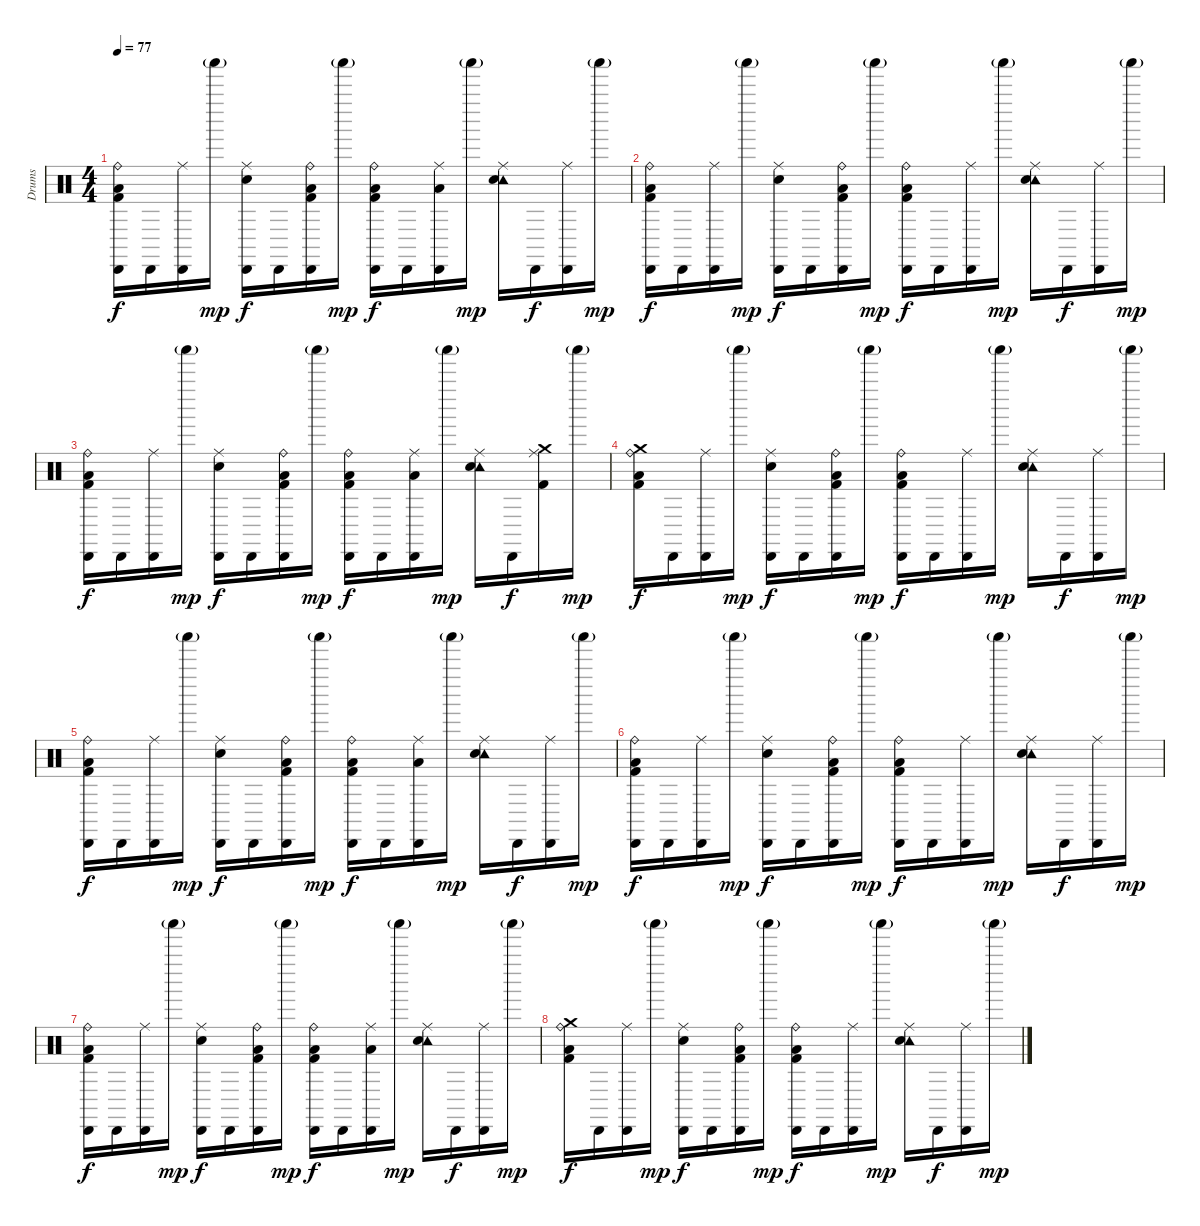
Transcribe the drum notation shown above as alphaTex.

\track ("Drums" "Drums") {instrument percussion}
\staff {score}
\articulation defaults
\ts (4 4)
\tempo 77
\clef neutral
\ks c
("Cabasa (hit)" "Ride (bell)" "Low Floor Tom (hit)" "Kick (hit) 2").16{dy f} "Cabasa (hit)".16 ("Cabasa (hit)" "Ride (middle)").16 "Shaker (hit)"{g}.16{dy mp} ("Cabasa (hit)" "Ride (middle)" "Snare (hit) 2").16{dy f} "Cabasa (hit)".16 ("Cabasa (hit)" "Ride (bell)" "Low Floor Tom (hit)" "Kick (hit) 2").16 "Shaker (hit)"{g}.16{dy mp} ("Cabasa (hit)" "Ride (bell)" "Low Floor Tom (hit)" "Kick (hit) 2").16{dy f} "Cabasa (hit)".16 ("Cabasa (hit)" "Ride (middle)" "Low Floor Tom (hit)").16 "Shaker (hit)"{g}.16{dy mp} ("Tambourine (hit)" "Ride (middle)" "Snare (hit) 2").16 "Cabasa (hit)".16{dy f} ("Cabasa (hit)" "Ride (middle)").16 "Shaker (hit)"{g}.16{dy mp} |
("Cabasa (hit)" "Ride (bell)" "Low Floor Tom (hit)" "Kick (hit) 2").16{dy f} "Cabasa (hit)".16 ("Cabasa (hit)" "Ride (middle)").16 "Shaker (hit)"{g}.16{dy mp} ("Cabasa (hit)" "Ride (middle)" "Snare (hit) 2").16{dy f} "Cabasa (hit)".16 ("Cabasa (hit)" "Ride (bell)" "Low Floor Tom (hit)" "Kick (hit) 2").16 "Shaker (hit)"{g}.16{dy mp} ("Cabasa (hit)" "Ride (bell)" "Low Floor Tom (hit)" "Kick (hit) 2").16{dy f} "Cabasa (hit)".16 ("Cabasa (hit)" "Ride (middle)").16 "Shaker (hit)"{g}.16{dy mp} ("Tambourine (hit)" "Ride (middle)" "Snare (hit) 2").16 "Cabasa (hit)".16{dy f} ("Cabasa (hit)" "Ride (middle)").16 "Shaker (hit)"{g}.16{dy mp} |
("Cabasa (hit)" "Ride (bell)" "Low Floor Tom (hit)" "Kick (hit) 2").16{dy f} "Cabasa (hit)".16 ("Cabasa (hit)" "Ride (middle)").16 "Shaker (hit)"{g}.16{dy mp} ("Cabasa (hit)" "Ride (middle)" "Snare (hit) 2").16{dy f} "Cabasa (hit)".16 ("Cabasa (hit)" "Ride (bell)" "Low Floor Tom (hit)" "Kick (hit) 2").16 "Shaker (hit)"{g}.16{dy mp} ("Cabasa (hit)" "Ride (bell)" "Low Floor Tom (hit)" "Kick (hit) 2").16{dy f} "Cabasa (hit)".16 ("Cabasa (hit)" "Ride (middle)" "Low Floor Tom (hit)").16 "Shaker (hit)"{g}.16{dy mp} ("Tambourine (hit)" "Ride (middle)" "Snare (hit) 2").16 "Cabasa (hit)".16{dy f} ("Crash medium (hit)" "Ride (middle)" "Kick (hit) 2").16 "Shaker (hit)"{g}.16{dy mp} |
("Crash medium (hit)" "Ride (bell)" "Low Floor Tom (hit)" "Kick (hit) 2").16{dy f} "Cabasa (hit)".16 ("Cabasa (hit)" "Ride (middle)").16 "Shaker (hit)"{g}.16{dy mp} ("Cabasa (hit)" "Ride (middle)" "Snare (hit) 2").16{dy f} "Cabasa (hit)".16 ("Cabasa (hit)" "Ride (bell)" "Low Floor Tom (hit)" "Kick (hit) 2").16 "Shaker (hit)"{g}.16{dy mp} ("Cabasa (hit)" "Ride (bell)" "Low Floor Tom (hit)" "Kick (hit) 2").16{dy f} "Cabasa (hit)".16 ("Cabasa (hit)" "Ride (middle)").16 "Shaker (hit)"{g}.16{dy mp} ("Tambourine (hit)" "Ride (middle)" "Snare (hit) 2").16 "Cabasa (hit)".16{dy f} ("Cabasa (hit)" "Ride (middle)").16 "Shaker (hit)"{g}.16{dy mp} |
("Cabasa (hit)" "Ride (bell)" "Low Floor Tom (hit)" "Kick (hit) 2").16{dy f} "Cabasa (hit)".16 ("Cabasa (hit)" "Ride (middle)").16 "Shaker (hit)"{g}.16{dy mp} ("Cabasa (hit)" "Ride (middle)" "Snare (hit) 2").16{dy f} "Cabasa (hit)".16 ("Cabasa (hit)" "Ride (bell)" "Low Floor Tom (hit)" "Kick (hit) 2").16 "Shaker (hit)"{g}.16{dy mp} ("Cabasa (hit)" "Ride (bell)" "Low Floor Tom (hit)" "Kick (hit) 2").16{dy f} "Cabasa (hit)".16 ("Cabasa (hit)" "Ride (middle)" "Low Floor Tom (hit)").16 "Shaker (hit)"{g}.16{dy mp} ("Tambourine (hit)" "Ride (middle)" "Snare (hit) 2").16 "Cabasa (hit)".16{dy f} ("Cabasa (hit)" "Ride (middle)").16 "Shaker (hit)"{g}.16{dy mp} |
("Cabasa (hit)" "Ride (bell)" "Low Floor Tom (hit)" "Kick (hit) 2").16{dy f} "Cabasa (hit)".16 ("Cabasa (hit)" "Ride (middle)").16 "Shaker (hit)"{g}.16{dy mp} ("Cabasa (hit)" "Ride (middle)" "Snare (hit) 2").16{dy f} "Cabasa (hit)".16 ("Cabasa (hit)" "Ride (bell)" "Low Floor Tom (hit)" "Kick (hit) 2").16 "Shaker (hit)"{g}.16{dy mp} ("Cabasa (hit)" "Ride (bell)" "Low Floor Tom (hit)" "Kick (hit) 2").16{dy f} "Cabasa (hit)".16 ("Cabasa (hit)" "Ride (middle)").16 "Shaker (hit)"{g}.16{dy mp} ("Tambourine (hit)" "Ride (middle)" "Snare (hit) 2").16 "Cabasa (hit)".16{dy f} ("Cabasa (hit)" "Ride (middle)").16 "Shaker (hit)"{g}.16{dy mp} |
("Cabasa (hit)" "Ride (bell)" "Low Floor Tom (hit)" "Kick (hit) 2").16{dy f} "Cabasa (hit)".16 ("Cabasa (hit)" "Ride (middle)").16 "Shaker (hit)"{g}.16{dy mp} ("Cabasa (hit)" "Ride (middle)" "Snare (hit) 2").16{dy f} "Cabasa (hit)".16 ("Cabasa (hit)" "Ride (bell)" "Low Floor Tom (hit)" "Kick (hit) 2").16 "Shaker (hit)"{g}.16{dy mp} ("Cabasa (hit)" "Ride (bell)" "Low Floor Tom (hit)" "Kick (hit) 2").16{dy f} "Cabasa (hit)".16 ("Cabasa (hit)" "Ride (middle)" "Low Floor Tom (hit)").16 "Shaker (hit)"{g}.16{dy mp} ("Tambourine (hit)" "Ride (middle)" "Snare (hit) 2").16 "Cabasa (hit)".16{dy f} ("Cabasa (hit)" "Ride (middle)").16 "Shaker (hit)"{g}.16{dy mp} |
("Crash medium (hit)" "Ride (bell)" "Low Floor Tom (hit)" "Kick (hit) 2").16{dy f} "Cabasa (hit)".16 ("Cabasa (hit)" "Ride (middle)").16 "Shaker (hit)"{g}.16{dy mp} ("Cabasa (hit)" "Ride (middle)" "Snare (hit) 2").16{dy f} "Cabasa (hit)".16 ("Cabasa (hit)" "Ride (bell)" "Low Floor Tom (hit)" "Kick (hit) 2").16 "Shaker (hit)"{g}.16{dy mp} ("Cabasa (hit)" "Ride (bell)" "Low Floor Tom (hit)" "Kick (hit) 2").16{dy f} "Cabasa (hit)".16 ("Cabasa (hit)" "Ride (middle)").16 "Shaker (hit)"{g}.16{dy mp} ("Tambourine (hit)" "Ride (middle)" "Snare (hit) 2").16 "Cabasa (hit)".16{dy f} ("Cabasa (hit)" "Ride (middle)").16 "Shaker (hit)"{g}.16{dy mp}
